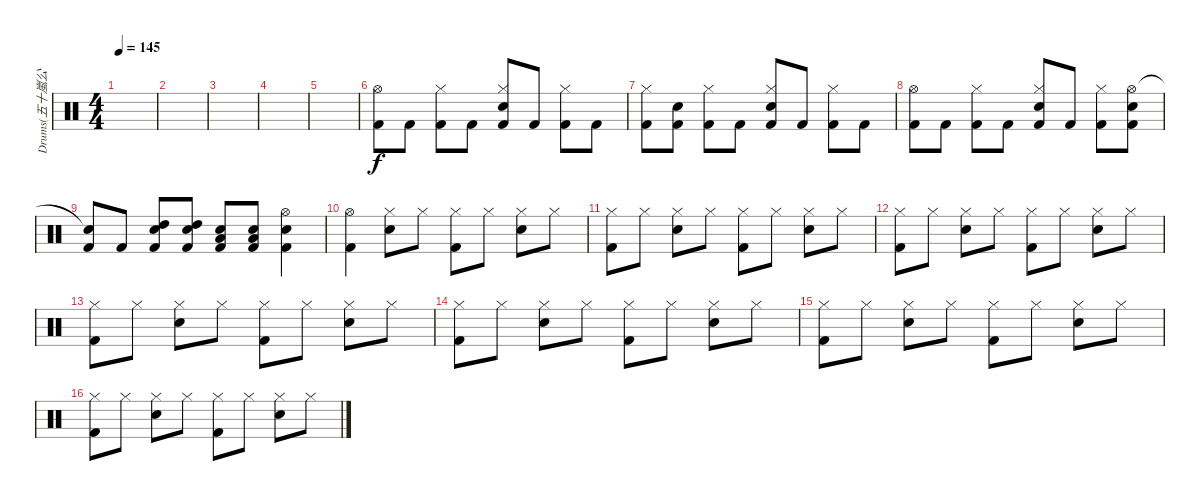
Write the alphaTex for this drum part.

\track ("Drums(五十嵐公太)" "Drums(五十嵐公") {instrument percussion}
\staff {score}
\articulation defaults
\ts (4 4)
\tempo 145
\clef neutral
\ks c
|
|
|
|
|
("Hi-Hat (open)" "Kick (hit) 2").8 "Kick (hit) 2".8 ("Hi-Hat (closed)" "Kick (hit) 2").8 "Kick (hit) 2".8 ("Hi-Hat (closed)" "Snare (hit) 2" "Kick (hit) 2").8 "Kick (hit) 2".8 ("Hi-Hat (closed)" "Kick (hit) 2").8 "Kick (hit) 2".8 |
("Hi-Hat (closed)" "Kick (hit) 2").8 ("Snare (hit) 2" "Kick (hit) 2").8 ("Hi-Hat (closed)" "Kick (hit) 2").8 "Kick (hit) 2".8 ("Hi-Hat (closed)" "Snare (hit) 2" "Kick (hit) 2").8 "Kick (hit) 2".8 ("Hi-Hat (closed)" "Kick (hit) 2").8 "Kick (hit) 2".8 |
("Hi-Hat (open)" "Kick (hit) 2").8 "Kick (hit) 2".8 ("Hi-Hat (closed)" "Kick (hit) 2").8 "Kick (hit) 2".8 ("Hi-Hat (closed)" "Snare (hit) 2" "Kick (hit) 2").8 "Kick (hit) 2".8 ("Hi-Hat (closed)" "Kick (hit) 2").8 ("Hi-Hat (open)" "Snare (hit) 2" "Kick (hit) 2").8 |
("Snare (hit)"{t} "Kick (hit) 2").8 "Kick (hit) 2".8 ("Snare (hit) 2" "High Tom (hit)" "Kick (hit) 2").8 ("Snare (hit) 2" "High Tom (hit)" "Kick (hit) 2").8 ("Snare (hit) 2" "Low Tom (hit)" "Kick (hit) 2").8 ("Snare (hit) 2" "Low Tom (hit)" "Kick (hit) 2").8 ("Hi-Hat (open)" "Snare (hit) 2" "Kick (hit) 2").4 |
("Hi-Hat (open)" "Kick (hit) 2").4 ("Hi-Hat (closed)" "Snare (hit) 2").8 "Hi-Hat (closed)".8 ("Hi-Hat (closed)" "Kick (hit) 2").8 "Hi-Hat (closed)".8 ("Hi-Hat (closed)" "Snare (hit) 2").8 "Hi-Hat (closed)".8 |
("Hi-Hat (closed)" "Kick (hit) 2").8 "Hi-Hat (closed)".8 ("Hi-Hat (closed)" "Snare (hit) 2").8 "Hi-Hat (closed)".8 ("Hi-Hat (closed)" "Kick (hit) 2").8 "Hi-Hat (closed)".8 ("Hi-Hat (closed)" "Snare (hit) 2").8 "Hi-Hat (closed)".8 |
("Hi-Hat (closed)" "Kick (hit) 2").8 "Hi-Hat (closed)".8 ("Hi-Hat (closed)" "Snare (hit) 2").8 "Hi-Hat (closed)".8 ("Hi-Hat (closed)" "Kick (hit) 2").8 "Hi-Hat (closed)".8 ("Hi-Hat (closed)" "Snare (hit) 2").8 "Hi-Hat (closed)".8 |
("Hi-Hat (closed)" "Kick (hit) 2").8 "Hi-Hat (closed)".8 ("Hi-Hat (closed)" "Snare (hit) 2").8 "Hi-Hat (closed)".8 ("Hi-Hat (closed)" "Kick (hit) 2").8 "Hi-Hat (closed)".8 ("Hi-Hat (closed)" "Snare (hit) 2").8 "Hi-Hat (closed)".8 |
("Hi-Hat (closed)" "Kick (hit) 2").8 "Hi-Hat (closed)".8 ("Hi-Hat (closed)" "Snare (hit) 2").8 "Hi-Hat (closed)".8 ("Hi-Hat (closed)" "Kick (hit) 2").8 "Hi-Hat (closed)".8 ("Hi-Hat (closed)" "Snare (hit) 2").8 "Hi-Hat (closed)".8 |
("Hi-Hat (closed)" "Kick (hit) 2").8 "Hi-Hat (closed)".8 ("Hi-Hat (closed)" "Snare (hit) 2").8 "Hi-Hat (closed)".8 ("Hi-Hat (closed)" "Kick (hit) 2").8 "Hi-Hat (closed)".8 ("Hi-Hat (closed)" "Snare (hit) 2").8 "Hi-Hat (closed)".8 |
("Hi-Hat (closed)" "Kick (hit) 2").8 "Hi-Hat (closed)".8 ("Hi-Hat (closed)" "Snare (hit) 2").8 "Hi-Hat (closed)".8 ("Hi-Hat (closed)" "Kick (hit) 2").8 "Hi-Hat (closed)".8 ("Hi-Hat (closed)" "Snare (hit) 2").8 "Hi-Hat (closed)".8
